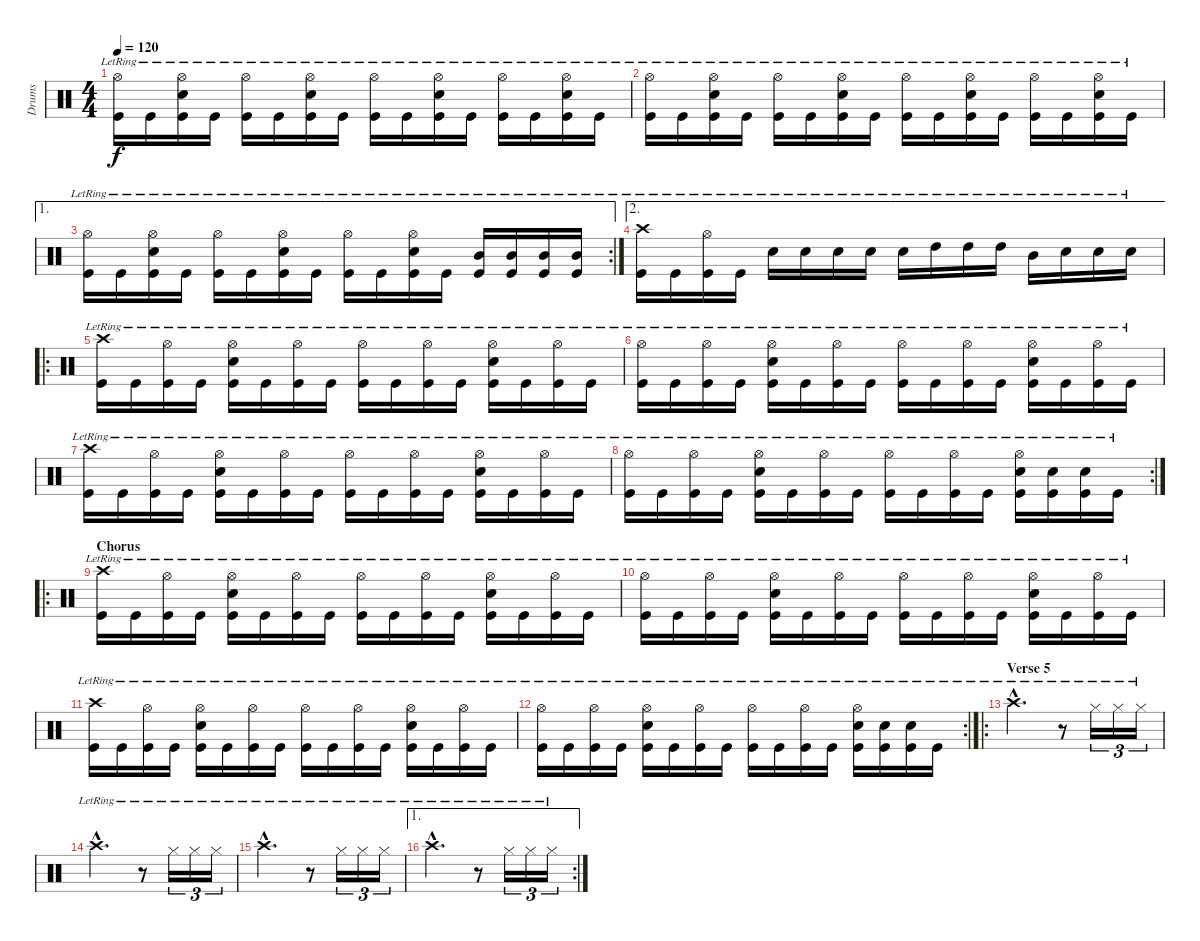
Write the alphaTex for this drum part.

\track ("Drums" "Drums") {instrument percussion}
\staff {score}
\articulation defaults
\ts (4 4)
\tempo 120
\clef neutral
\ks c
("Hi-Hat (open)"{lr} "Kick (hit)"{lr}).16{dy f} "Kick (hit)"{lr}.16 ("Hi-Hat (open)"{lr} "Snare (hit) 2"{lr} "Kick (hit)"{lr}).16 "Kick (hit)"{lr}.16 ("Hi-Hat (open)"{lr} "Kick (hit)"{lr}).16 "Kick (hit)"{lr}.16 ("Hi-Hat (open)"{lr} "Snare (hit) 2"{lr} "Kick (hit)"{lr}).16 "Kick (hit)"{lr}.16 ("Hi-Hat (open)"{lr} "Kick (hit)"{lr}).16 "Kick (hit)"{lr}.16 ("Hi-Hat (open)"{lr} "Snare (hit) 2"{lr} "Kick (hit)"{lr}).16 "Kick (hit)"{lr}.16 ("Hi-Hat (open)"{lr} "Kick (hit)"{lr}).16 "Kick (hit)"{lr}.16 ("Hi-Hat (open)"{lr} "Snare (hit) 2"{lr} "Kick (hit)"{lr}).16 "Kick (hit)"{lr}.16 |
("Hi-Hat (open)"{lr} "Kick (hit)"{lr}).16 "Kick (hit)"{lr}.16 ("Hi-Hat (open)"{lr} "Snare (hit) 2"{lr} "Kick (hit)"{lr}).16 "Kick (hit)"{lr}.16 ("Hi-Hat (open)"{lr} "Kick (hit)"{lr}).16 "Kick (hit)"{lr}.16 ("Hi-Hat (open)"{lr} "Snare (hit) 2"{lr} "Kick (hit)"{lr}).16 "Kick (hit)"{lr}.16 ("Hi-Hat (open)"{lr} "Kick (hit)"{lr}).16 "Kick (hit)"{lr}.16 ("Hi-Hat (open)"{lr} "Snare (hit) 2"{lr} "Kick (hit)"{lr}).16 "Kick (hit)"{lr}.16 ("Hi-Hat (open)"{lr} "Kick (hit)"{lr}).16 "Kick (hit)"{lr}.16 ("Hi-Hat (open)"{lr} "Snare (hit) 2"{lr} "Kick (hit)"{lr}).16 "Kick (hit)"{lr}.16 |
\ae 1
\rc 2
("Hi-Hat (open)"{lr} "Kick (hit)"{lr}).16 "Kick (hit)"{lr}.16 ("Hi-Hat (open)"{lr} "Snare (hit) 2"{lr} "Kick (hit)"{lr}).16 "Kick (hit)"{lr}.16 ("Hi-Hat (open)"{lr} "Kick (hit)"{lr}).16 "Kick (hit)"{lr}.16 ("Hi-Hat (open)"{lr} "Snare (hit) 2"{lr} "Kick (hit)"{lr}).16 "Kick (hit)"{lr}.16 ("Hi-Hat (open)"{lr} "Kick (hit)"{lr}).16 "Kick (hit)"{lr}.16 ("Hi-Hat (open)"{lr} "Snare (hit) 2"{lr} "Kick (hit)"{lr}).16 "Kick (hit)"{lr}.16 ("Mid Tom (hit)"{lr} "Kick (hit)"{lr}).16 ("Mid Tom (hit)"{lr} "Kick (hit)"{lr}).16 ("Mid Tom (hit)"{lr} "Kick (hit)"{lr}).16 ("Mid Tom (hit)"{lr} "Kick (hit)"{lr}).16 |
\ae 2
("Crash high (hit)"{lr} "Kick (hit)"{lr}).16 "Kick (hit)"{lr}.16 ("Hi-Hat (open)"{lr} "Kick (hit)"{lr}).16 "Kick (hit)"{lr}.16 "Snare (hit) 2"{lr}.16 "Snare (hit) 2"{lr}.16 "Snare (hit) 2"{lr}.16 "Snare (hit) 2"{lr}.16 "Snare (hit) 2"{lr}.16 "High Tom (hit)"{lr}.16 "High Tom (hit)"{lr}.16 "High Tom (hit)"{lr}.16 "Mid Tom (hit)"{lr}.16 "Snare (hit) 2"{lr}.16 "Snare (hit) 2"{lr}.16 "Snare (hit) 2"{lr}.16 |
\ro
("Crash high (hit)"{lr} "Kick (hit)"{lr}).16 "Kick (hit)"{lr}.16 ("Hi-Hat (open)"{lr} "Kick (hit)"{lr}).16 "Kick (hit)"{lr}.16 ("Hi-Hat (open)"{lr} "Snare (hit) 2"{lr} "Kick (hit)"{lr}).16 "Kick (hit)"{lr}.16 ("Hi-Hat (open)"{lr} "Kick (hit)"{lr}).16 "Kick (hit)"{lr}.16 ("Hi-Hat (open)"{lr} "Kick (hit)"{lr}).16 "Kick (hit)"{lr}.16 ("Hi-Hat (open)"{lr} "Kick (hit)"{lr}).16 "Kick (hit)"{lr}.16 ("Hi-Hat (open)"{lr} "Snare (hit) 2"{lr} "Kick (hit)"{lr}).16 "Kick (hit)"{lr}.16 ("Hi-Hat (open)"{lr} "Kick (hit)"{lr}).16 "Kick (hit)"{lr}.16 |
("Hi-Hat (open)"{lr} "Kick (hit)"{lr}).16 "Kick (hit)"{lr}.16 ("Hi-Hat (open)"{lr} "Kick (hit)"{lr}).16 "Kick (hit)"{lr}.16 ("Hi-Hat (open)"{lr} "Snare (hit) 2"{lr} "Kick (hit)"{lr}).16 "Kick (hit)"{lr}.16 ("Hi-Hat (open)"{lr} "Kick (hit)"{lr}).16 "Kick (hit)"{lr}.16 ("Hi-Hat (open)"{lr} "Kick (hit)"{lr}).16 "Kick (hit)"{lr}.16 ("Hi-Hat (open)"{lr} "Kick (hit)"{lr}).16 "Kick (hit)"{lr}.16 ("Hi-Hat (open)"{lr} "Snare (hit) 2"{lr} "Kick (hit)"{lr}).16 "Kick (hit)"{lr}.16 ("Hi-Hat (open)"{lr} "Kick (hit)"{lr}).16 "Kick (hit)"{lr}.16 |
("Crash high (hit)"{lr} "Kick (hit)"{lr}).16 "Kick (hit)"{lr}.16 ("Hi-Hat (open)"{lr} "Kick (hit)"{lr}).16 "Kick (hit)"{lr}.16 ("Hi-Hat (open)"{lr} "Snare (hit) 2"{lr} "Kick (hit)"{lr}).16 "Kick (hit)"{lr}.16 ("Hi-Hat (open)"{lr} "Kick (hit)"{lr}).16 "Kick (hit)"{lr}.16 ("Hi-Hat (open)"{lr} "Kick (hit)"{lr}).16 "Kick (hit)"{lr}.16 ("Hi-Hat (open)"{lr} "Kick (hit)"{lr}).16 "Kick (hit)"{lr}.16 ("Hi-Hat (open)"{lr} "Snare (hit) 2"{lr} "Kick (hit)"{lr}).16 "Kick (hit)"{lr}.16 ("Hi-Hat (open)"{lr} "Kick (hit)"{lr}).16 "Kick (hit)"{lr}.16 |
\rc 2
("Hi-Hat (open)"{lr} "Kick (hit)"{lr}).16 "Kick (hit)"{lr}.16 ("Hi-Hat (open)"{lr} "Kick (hit)"{lr}).16 "Kick (hit)"{lr}.16 ("Hi-Hat (open)"{lr} "Snare (hit) 2"{lr} "Kick (hit)"{lr}).16 "Kick (hit)"{lr}.16 ("Hi-Hat (open)"{lr} "Kick (hit)"{lr}).16 "Kick (hit)"{lr}.16 ("Hi-Hat (open)"{lr} "Kick (hit)"{lr}).16 "Kick (hit)"{lr}.16 ("Hi-Hat (open)"{lr} "Kick (hit)"{lr}).16 "Kick (hit)"{lr}.16 ("Hi-Hat (open)"{lr} "Snare (hit) 2"{lr} "Kick (hit)"{lr}).16 ("Snare (hit) 2"{lr} "Kick (hit)"{lr}).16 ("Snare (hit) 2"{lr} "Kick (hit)"{lr}).16 "Kick (hit)"{lr}.16 |
\ro
\section ("" "Chorus")
("Crash high (hit)"{lr} "Kick (hit)"{lr}).16 "Kick (hit)"{lr}.16 ("Hi-Hat (open)"{lr} "Kick (hit)"{lr}).16 "Kick (hit)"{lr}.16 ("Hi-Hat (open)"{lr} "Snare (hit) 2"{lr} "Kick (hit)"{lr}).16 "Kick (hit)"{lr}.16 ("Hi-Hat (open)"{lr} "Kick (hit)"{lr}).16 "Kick (hit)"{lr}.16 ("Hi-Hat (open)"{lr} "Kick (hit)"{lr}).16 "Kick (hit)"{lr}.16 ("Hi-Hat (open)"{lr} "Kick (hit)"{lr}).16 "Kick (hit)"{lr}.16 ("Hi-Hat (open)"{lr} "Snare (hit) 2"{lr} "Kick (hit)"{lr}).16 "Kick (hit)"{lr}.16 ("Hi-Hat (open)"{lr} "Kick (hit)"{lr}).16 "Kick (hit)"{lr}.16 |
("Hi-Hat (open)"{lr} "Kick (hit)"{lr}).16 "Kick (hit)"{lr}.16 ("Hi-Hat (open)"{lr} "Kick (hit)"{lr}).16 "Kick (hit)"{lr}.16 ("Hi-Hat (open)"{lr} "Snare (hit) 2"{lr} "Kick (hit)"{lr}).16 "Kick (hit)"{lr}.16 ("Hi-Hat (open)"{lr} "Kick (hit)"{lr}).16 "Kick (hit)"{lr}.16 ("Hi-Hat (open)"{lr} "Kick (hit)"{lr}).16 "Kick (hit)"{lr}.16 ("Hi-Hat (open)"{lr} "Kick (hit)"{lr}).16 "Kick (hit)"{lr}.16 ("Hi-Hat (open)"{lr} "Snare (hit) 2"{lr} "Kick (hit)"{lr}).16 "Kick (hit)"{lr}.16 ("Hi-Hat (open)"{lr} "Kick (hit)"{lr}).16 "Kick (hit)"{lr}.16 |
("Crash high (hit)"{lr} "Kick (hit)"{lr}).16 "Kick (hit)"{lr}.16 ("Hi-Hat (open)"{lr} "Kick (hit)"{lr}).16 "Kick (hit)"{lr}.16 ("Hi-Hat (open)"{lr} "Snare (hit) 2"{lr} "Kick (hit)"{lr}).16 "Kick (hit)"{lr}.16 ("Hi-Hat (open)"{lr} "Kick (hit)"{lr}).16 "Kick (hit)"{lr}.16 ("Hi-Hat (open)"{lr} "Kick (hit)"{lr}).16 "Kick (hit)"{lr}.16 ("Hi-Hat (open)"{lr} "Kick (hit)"{lr}).16 "Kick (hit)"{lr}.16 ("Hi-Hat (open)"{lr} "Snare (hit) 2"{lr} "Kick (hit)"{lr}).16 "Kick (hit)"{lr}.16 ("Hi-Hat (open)"{lr} "Kick (hit)"{lr}).16 "Kick (hit)"{lr}.16 |
\rc 2
("Hi-Hat (open)"{lr} "Kick (hit)"{lr}).16 "Kick (hit)"{lr}.16 ("Hi-Hat (open)"{lr} "Kick (hit)"{lr}).16 "Kick (hit)"{lr}.16 ("Hi-Hat (open)"{lr} "Snare (hit) 2"{lr} "Kick (hit)"{lr}).16 "Kick (hit)"{lr}.16 ("Hi-Hat (open)"{lr} "Kick (hit)"{lr}).16 "Kick (hit)"{lr}.16 ("Hi-Hat (open)"{lr} "Kick (hit)"{lr}).16 "Kick (hit)"{lr}.16 ("Hi-Hat (open)"{lr} "Kick (hit)"{lr}).16 "Kick (hit)"{lr}.16 ("Hi-Hat (open)"{lr} "Snare (hit) 2"{lr} "Kick (hit)"{lr}).16 ("Snare (hit) 2"{lr} "Kick (hit)"{lr}).16 ("Snare (hit) 2"{lr} "Kick (hit)"{lr}).16 "Kick (hit)"{lr}.16 |
\ro
\section ("" "Verse 5")
"Crash high (hit)"{hac lr}.2{d} r.8 "Hi-Hat (closed)"{lr}.16{tu (3 2)} "Hi-Hat (closed)"{lr}.16{tu (3 2)} "Hi-Hat (closed)"{lr}.16{tu (3 2)} |
"Crash high (hit)"{hac lr}.2{d} r.8 "Hi-Hat (closed)"{lr}.16{tu (3 2)} "Hi-Hat (closed)"{lr}.16{tu (3 2)} "Hi-Hat (closed)"{lr}.16{tu (3 2)} |
"Crash high (hit)"{hac lr}.2{d} r.8 "Hi-Hat (closed)"{lr}.16{tu (3 2)} "Hi-Hat (closed)"{lr}.16{tu (3 2)} "Hi-Hat (closed)"{lr}.16{tu (3 2)} |
\ae 1
\rc 2 "Crash high (hit)"{hac lr}.2{d}
r.8 "Hi-Hat (closed)"{lr}.16{tu (3 2)} "Hi-Hat (closed)"{lr}.16{tu (3 2)} "Hi-Hat (closed)"{lr}.16{tu (3 2)}
